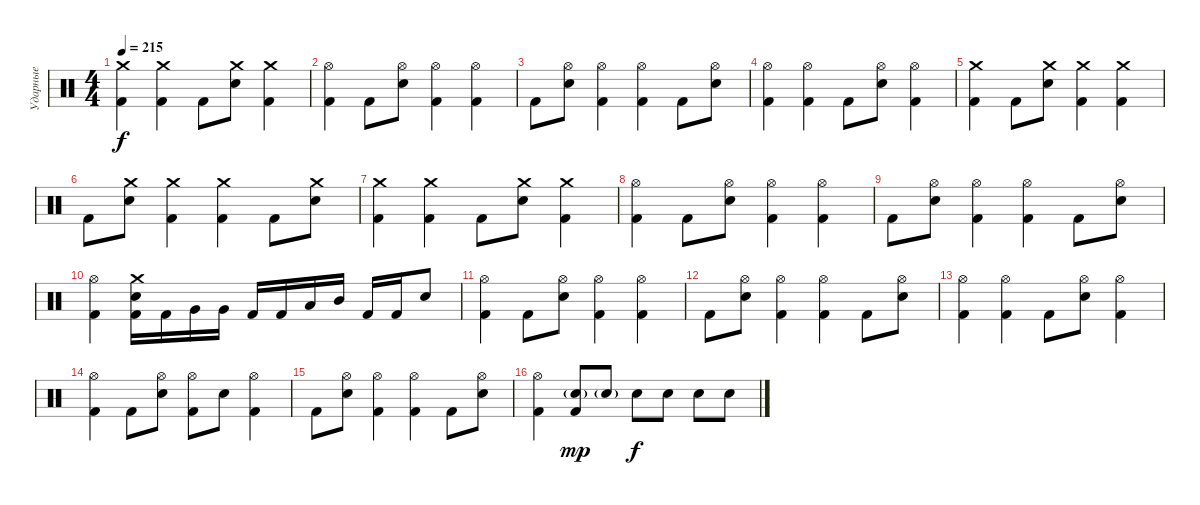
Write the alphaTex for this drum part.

\track ("Ударные" "Ударные") {instrument percussion}
\staff {score}
\articulation defaults
\ts (4 4)
\tempo 215
\clef neutral
\ks c
("Crash medium (hit)" "Kick (hit) 2").4{dy f} ("Crash medium (hit)" "Kick (hit) 2").4 "Kick (hit) 2".8 ("Crash medium (hit)" "Snare (hit) 2").8 ("Crash medium (hit)" "Kick (hit) 2").4 |
("Hi-Hat (open)" "Kick (hit) 2").4 "Kick (hit) 2".8 ("Hi-Hat (open)" "Snare (hit) 2").8 ("Hi-Hat (open)" "Kick (hit) 2").4 ("Hi-Hat (open)" "Kick (hit) 2").4 |
"Kick (hit) 2".8 ("Hi-Hat (open)" "Snare (hit) 2").8 ("Hi-Hat (open)" "Kick (hit) 2").4 ("Hi-Hat (open)" "Kick (hit) 2").4 "Kick (hit) 2".8 ("Hi-Hat (open)" "Snare (hit) 2").8 |
("Hi-Hat (open)" "Kick (hit) 2").4 ("Hi-Hat (open)" "Kick (hit) 2").4 "Kick (hit) 2".8 ("Hi-Hat (open)" "Snare (hit) 2").8 ("Hi-Hat (open)" "Kick (hit) 2").4 |
("Crash medium (hit)" "Kick (hit) 2").4 "Kick (hit) 2".8 ("Crash medium (hit)" "Snare (hit) 2").8 ("Crash medium (hit)" "Kick (hit) 2").4 ("Crash medium (hit)" "Kick (hit) 2").4 |
"Kick (hit) 2".8 ("Crash medium (hit)" "Snare (hit) 2").8 ("Crash medium (hit)" "Kick (hit) 2").4 ("Crash medium (hit)" "Kick (hit) 2").4 "Kick (hit) 2".8 ("Crash medium (hit)" "Snare (hit) 2").8 |
("Crash medium (hit)" "Kick (hit) 2").4 ("Crash medium (hit)" "Kick (hit) 2").4 "Kick (hit) 2".8 ("Crash medium (hit)" "Snare (hit) 2").8 ("Crash medium (hit)" "Kick (hit) 2").4 |
("Hi-Hat (open)" "Kick (hit) 2").4 "Kick (hit) 2".8 ("Hi-Hat (open)" "Snare (hit) 2").8 ("Hi-Hat (open)" "Kick (hit) 2").4 ("Hi-Hat (open)" "Kick (hit) 2").4 |
"Kick (hit) 2".8 ("Hi-Hat (open)" "Snare (hit) 2").8 ("Hi-Hat (open)" "Kick (hit) 2").4 ("Hi-Hat (open)" "Kick (hit) 2").4 "Kick (hit) 2".8 ("Hi-Hat (open)" "Snare (hit) 2").8 |
("Hi-Hat (open)" "Kick (hit) 2").4 ("Crash medium (hit)" "Snare (hit) 2" "Kick (hit) 2").16 "Kick (hit) 2".16 "Very Low Tom (hit)".16 "Very Low Tom (hit)".16 "Kick (hit) 2".16 "Kick (hit) 2".16 "Low Tom (hit)".16 "Mid Tom (hit)".16 "Kick (hit) 2".16 "Kick (hit) 2".16 "Snare (hit) 2".8 |
("Hi-Hat (open)" "Kick (hit) 2").4 "Kick (hit) 2".8 ("Hi-Hat (open)" "Snare (hit) 2").8 ("Hi-Hat (open)" "Kick (hit) 2").4 ("Hi-Hat (open)" "Kick (hit) 2").4 |
"Kick (hit) 2".8 ("Hi-Hat (open)" "Snare (hit) 2").8 ("Hi-Hat (open)" "Kick (hit) 2").4 ("Hi-Hat (open)" "Kick (hit) 2").4 "Kick (hit) 2".8 ("Hi-Hat (open)" "Snare (hit) 2").8 |
("Hi-Hat (open)" "Kick (hit) 2").4 ("Hi-Hat (open)" "Kick (hit) 2").4 "Kick (hit) 2".8 ("Hi-Hat (open)" "Snare (hit) 2").8 ("Hi-Hat (open)" "Kick (hit) 2").4 |
("Hi-Hat (open)" "Kick (hit) 2").4 "Kick (hit) 2".8 ("Hi-Hat (open)" "Snare (hit) 2").8 ("Hi-Hat (open)" "Kick (hit) 2").8 "Snare (hit) 2".8 ("Hi-Hat (open)" "Kick (hit) 2").4 |
"Kick (hit) 2".8 ("Hi-Hat (open)" "Snare (hit) 2").8 ("Hi-Hat (open)" "Kick (hit) 2").4 ("Hi-Hat (open)" "Kick (hit) 2").4 "Kick (hit) 2".8 ("Hi-Hat (open)" "Snare (hit) 2").8 |
("Hi-Hat (open)" "Kick (hit) 2").4 ("Snare (hit) 2"{g} "Kick (hit) 2").8{dy mp} "Snare (hit) 2"{g}.8 "Snare (hit) 2".8{dy f} "Snare (hit) 2".8 "Snare (hit) 2".8 "Snare (hit) 2".8
